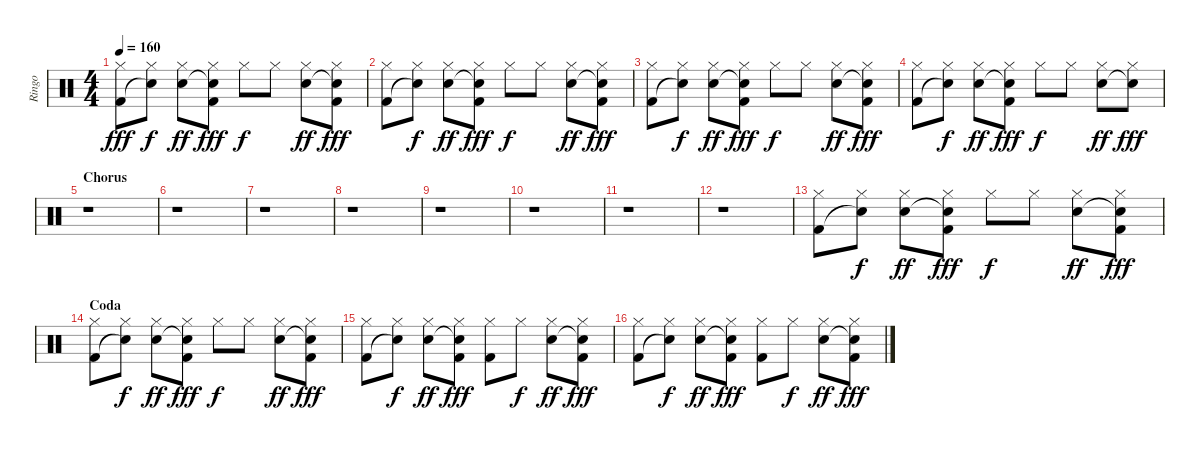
\track ("Ringo" "Ringo") {instrument percussion}
\staff {score}
\articulation defaults
\ts (4 4)
\tempo 160
\clef neutral
\ks c
("Hi-Hat (closed)" "Kick (hit) 2").8{dy fff} ("Hi-Hat (closed)" "Snare (hit)"{t}).8{dy f} ("Hi-Hat (closed)" "Snare (hit) 2").8{dy ff} ("Hi-Hat (closed)" "Snare (hit)"{t} "Kick (hit) 2").8{dy fff} "Hi-Hat (closed)".8{dy f} "Hi-Hat (closed)".8 ("Hi-Hat (closed)" "Snare (hit) 2").8{dy ff} ("Hi-Hat (closed)" "Snare (hit)"{t} "Kick (hit) 2").8{dy fff} |
("Hi-Hat (closed)" "Kick (hit) 2").8 ("Hi-Hat (closed)" "Snare (hit)"{t}).8{dy f} ("Hi-Hat (closed)" "Snare (hit) 2").8{dy ff} ("Hi-Hat (closed)" "Snare (hit)"{t} "Kick (hit) 2").8{dy fff} "Hi-Hat (closed)".8{dy f} "Hi-Hat (closed)".8 ("Hi-Hat (closed)" "Snare (hit) 2").8{dy ff} ("Hi-Hat (closed)" "Snare (hit)"{t} "Kick (hit) 2").8{dy fff} |
("Hi-Hat (closed)" "Kick (hit) 2").8 ("Hi-Hat (closed)" "Snare (hit)"{t}).8{dy f} ("Hi-Hat (closed)" "Snare (hit) 2").8{dy ff} ("Hi-Hat (closed)" "Snare (hit)"{t} "Kick (hit) 2").8{dy fff} "Hi-Hat (closed)".8{dy f} "Hi-Hat (closed)".8 ("Hi-Hat (closed)" "Snare (hit) 2").8{dy ff} ("Hi-Hat (closed)" "Snare (hit)"{t} "Kick (hit) 2").8{dy fff} |
("Hi-Hat (closed)" "Kick (hit) 2").8 ("Hi-Hat (closed)" "Snare (hit)"{t}).8{dy f} ("Hi-Hat (closed)" "Snare (hit) 2").8{dy ff} ("Hi-Hat (closed)" "Snare (hit)"{t} "Kick (hit) 2").8{dy fff} "Hi-Hat (closed)".8{dy f} "Hi-Hat (closed)".8 ("Hi-Hat (closed)" "Snare (hit) 2").8{dy ff} ("Hi-Hat (closed)" "Snare (hit)"{t}).8{dy fff} |
\section ("" "Chorus")
r.1 |
r.1 |
r.1 |
r.1 |
r.1 |
r.1 |
r.1 |
r.1 |
("Hi-Hat (closed)" "Kick (hit) 2").8 ("Hi-Hat (closed)" "Snare (hit)"{t}).8{dy f} ("Hi-Hat (closed)" "Snare (hit) 2").8{dy ff} ("Hi-Hat (closed)" "Snare (hit)"{t} "Kick (hit) 2").8{dy fff} "Hi-Hat (closed)".8{dy f} "Hi-Hat (closed)".8 ("Hi-Hat (closed)" "Snare (hit) 2").8{dy ff} ("Hi-Hat (closed)" "Snare (hit)"{t} "Kick (hit) 2").8{dy fff} |
\section ("" "Coda")
("Hi-Hat (closed)" "Kick (hit) 2").8 ("Hi-Hat (closed)" "Snare (hit)"{t}).8{dy f} ("Hi-Hat (closed)" "Snare (hit) 2").8{dy ff} ("Hi-Hat (closed)" "Snare (hit)"{t} "Kick (hit) 2").8{dy fff} "Hi-Hat (closed)".8{dy f} "Hi-Hat (closed)".8 ("Hi-Hat (closed)" "Snare (hit) 2").8{dy ff} ("Hi-Hat (closed)" "Snare (hit)"{t} "Kick (hit) 2").8{dy fff} |
("Hi-Hat (closed)" "Kick (hit) 2").8 ("Hi-Hat (closed)" "Snare (hit)"{t}).8{dy f} ("Hi-Hat (closed)" "Snare (hit) 2").8{dy ff} ("Hi-Hat (closed)" "Snare (hit)"{t} "Kick (hit) 2").8{dy fff} ("Hi-Hat (closed)" "Kick (hit) 2").8 "Hi-Hat (closed)".8{dy f} ("Hi-Hat (closed)" "Snare (hit) 2").8{dy ff} ("Hi-Hat (closed)" "Snare (hit)"{t} "Kick (hit) 2").8{dy fff} |
("Hi-Hat (closed)" "Kick (hit) 2").8 ("Hi-Hat (closed)" "Snare (hit)"{t}).8{dy f} ("Hi-Hat (closed)" "Snare (hit) 2").8{dy ff} ("Hi-Hat (closed)" "Snare (hit)"{t} "Kick (hit) 2").8{dy fff} ("Hi-Hat (closed)" "Kick (hit) 2").8 "Hi-Hat (closed)".8{dy f} ("Hi-Hat (closed)" "Snare (hit) 2").8{dy ff} ("Hi-Hat (closed)" "Snare (hit)"{t} "Kick (hit) 2").8{dy fff}
